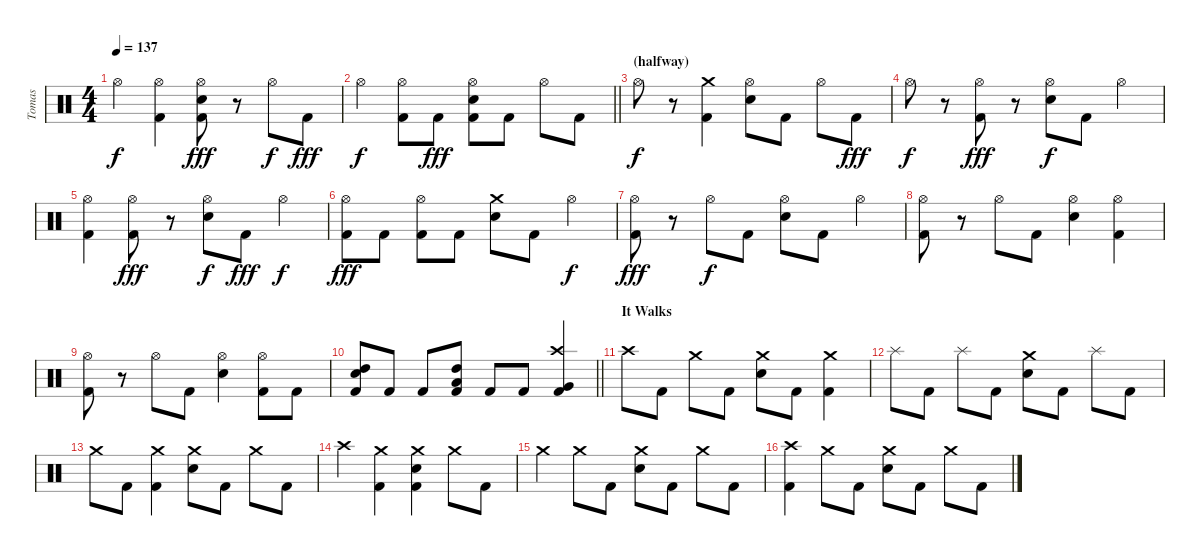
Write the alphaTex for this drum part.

\track ("Tomas" "Tomas") {instrument percussion}
\staff {score}
\articulation defaults
\ts (4 4)
\tempo 137
\clef neutral
\ks c "Hi-Hat (open)".4{dy f}
("Hi-Hat (open)" "Kick (hit) 2").4 ("Hi-Hat (open)" "Electric Snare (hit)" "Kick (hit) 2").8{dy fff} r.8 "Hi-Hat (open)".8{dy f} "Kick (hit) 2".8{dy fff} |
\barLineRight lightlight "Hi-Hat (open)".4{dy f}
("Hi-Hat (open)" "Kick (hit) 2").8 "Kick (hit) 2".8{dy fff} ("Hi-Hat (open)" "Electric Snare (hit)" "Kick (hit) 2").8 "Kick (hit) 2".8 "Hi-Hat (open)".8 "Kick (hit) 2".8 |
\section ("" "(halfway)")
"Hi-Hat (open)".8{dy f} r.8 ("Crash medium (hit)" "Kick (hit) 2").4 ("Hi-Hat (open)" "Electric Snare (hit)").8 "Kick (hit) 2".8 "Hi-Hat (open)".8 "Kick (hit) 2".8{dy fff} |
"Hi-Hat (open)".8{dy f} r.8 ("Hi-Hat (open)" "Kick (hit) 2").8{dy fff} r.8 ("Hi-Hat (open)" "Electric Snare (hit)").8{dy f} "Kick (hit) 2".8 "Hi-Hat (open)".4 |
("Hi-Hat (open)" "Kick (hit) 2").4 ("Hi-Hat (open)" "Kick (hit) 2").8{dy fff} r.8 ("Hi-Hat (open)" "Electric Snare (hit)").8{dy f} "Kick (hit) 2".8{dy fff} "Hi-Hat (open)".4{dy f} |
("Hi-Hat (open)" "Kick (hit) 2").8{dy fff} "Kick (hit) 2".8 ("Hi-Hat (open)" "Kick (hit) 2").8 "Kick (hit) 2".8 ("Crash medium (hit)" "Electric Snare (hit)").8 "Kick (hit) 2".8 "Hi-Hat (open)".4{dy f} |
("Hi-Hat (open)" "Kick (hit) 2").8{dy fff} r.8 "Hi-Hat (open)".8{dy f} "Kick (hit) 2".8 ("Hi-Hat (open)" "Electric Snare (hit)").8 "Kick (hit) 2".8 "Hi-Hat (open)".4 |
("Hi-Hat (open)" "Kick (hit) 2").8 r.8 "Hi-Hat (open)".8 "Kick (hit) 2".8 ("Hi-Hat (open)" "Electric Snare (hit)").4 ("Hi-Hat (open)" "Kick (hit) 2").4 |
("Hi-Hat (open)" "Kick (hit) 2").8 r.8 "Hi-Hat (open)".8 "Kick (hit) 2".8 ("Hi-Hat (open)" "Electric Snare (hit)").4 ("Hi-Hat (open)" "Kick (hit) 2").8 "Kick (hit) 2".8 |
\barLineRight lightlight
("High Tom (hit)" "Electric Snare (hit)" "Kick (hit) 2").8 "Kick (hit) 2".8 "Kick (hit) 2".8 ("High Tom (hit)" "Low Tom (hit)" "Kick (hit) 2").8 "Kick (hit) 2".8 "Kick (hit) 2".8 ("Crash high (hit)" "Very Low Tom (hit)" "Kick (hit) 2").4 |
\section ("" "It Walks")
"Crash high (hit)".8 "Kick (hit) 2".8 "Crash medium (hit)".8 "Kick (hit) 2".8 ("Crash medium (hit)" "Electric Snare (hit)").8 "Kick (hit) 2".8 ("Crash medium (hit)" "Kick (hit) 2").4 |
"Splash (hit)".8 "Kick (hit) 2".8 "Splash (hit)".8 "Kick (hit) 2".8 ("Crash medium (hit)" "Electric Snare (hit)").8 "Kick (hit) 2".8 "Splash (hit)".8 "Kick (hit) 2".8 |
"Crash medium (hit)".8 "Kick (hit) 2".8 ("Crash medium (hit)" "Kick (hit) 2").4 ("Crash medium (hit)" "Electric Snare (hit)").8 "Kick (hit) 2".8 "Crash medium (hit)".8 "Kick (hit) 2".8 |
"Crash high (hit)".4 ("Crash medium (hit)" "Kick (hit) 2").4 ("Crash medium (hit)" "Electric Snare (hit)" "Kick (hit) 2").4 "Crash medium (hit)".8 "Kick (hit) 2".8 |
"Crash medium (hit)".4 "Crash medium (hit)".8 "Kick (hit) 2".8 ("Crash medium (hit)" "Electric Snare (hit)").8 "Kick (hit) 2".8 "Crash medium (hit)".8 "Kick (hit) 2".8 |
("Crash high (hit)" "Kick (hit) 2").4 "Crash medium (hit)".8 "Kick (hit) 2".8 ("Crash medium (hit)" "Electric Snare (hit)").8 "Kick (hit) 2".8 "Crash medium (hit)".8 "Kick (hit) 2".8
